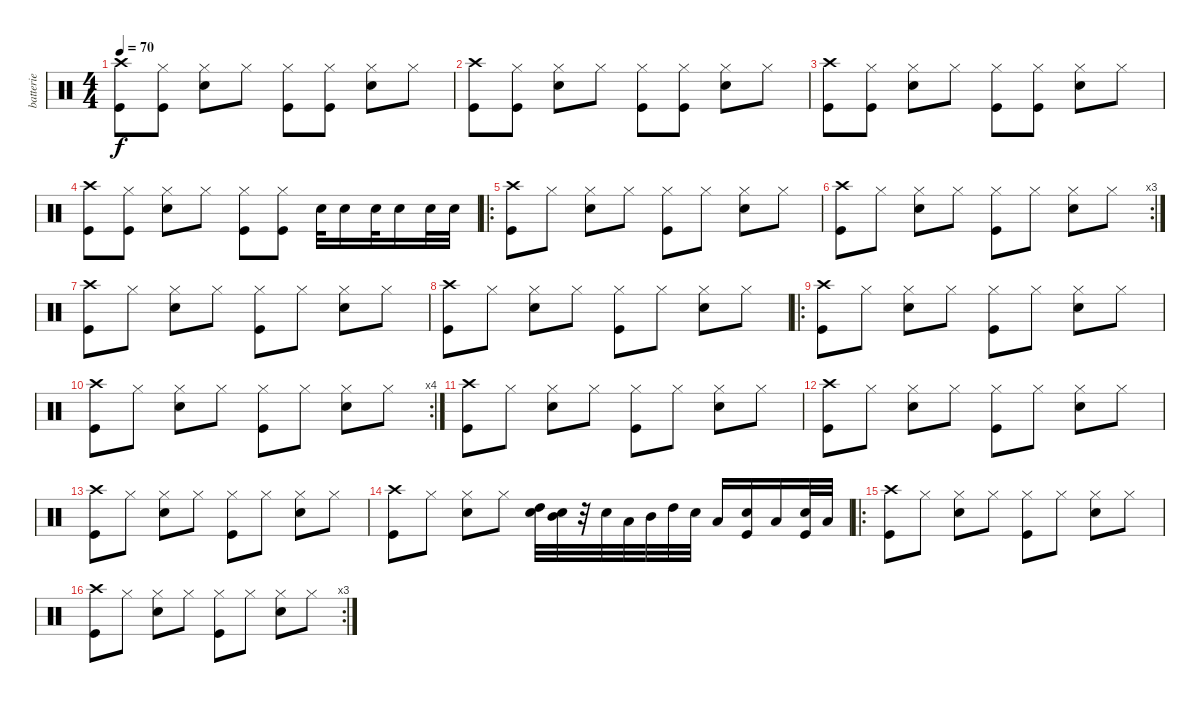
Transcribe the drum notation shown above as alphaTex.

\track ("batterie" "batterie") {instrument percussion}
\staff {score}
\articulation defaults
\ts (4 4)
\tempo 70
\clef neutral
\ks c
("Crash high (hit)" "Kick (hit)").8{dy f} ("Hi-Hat (closed)" "Kick (hit)").8 ("Hi-Hat (closed)" "Snare (hit) 2").8 "Hi-Hat (closed)".8 ("Hi-Hat (closed)" "Kick (hit)").8 ("Hi-Hat (closed)" "Kick (hit)").8 ("Hi-Hat (closed)" "Snare (hit) 2").8 "Hi-Hat (closed)".8 |
("Crash high (hit)" "Kick (hit)").8 ("Hi-Hat (closed)" "Kick (hit)").8 ("Hi-Hat (closed)" "Snare (hit) 2").8 "Hi-Hat (closed)".8 ("Hi-Hat (closed)" "Kick (hit)").8 ("Hi-Hat (closed)" "Kick (hit)").8 ("Hi-Hat (closed)" "Snare (hit) 2").8 "Hi-Hat (closed)".8 |
("Crash high (hit)" "Kick (hit)").8 ("Hi-Hat (closed)" "Kick (hit)").8 ("Hi-Hat (closed)" "Snare (hit) 2").8 "Hi-Hat (closed)".8 ("Hi-Hat (closed)" "Kick (hit)").8 ("Hi-Hat (closed)" "Kick (hit)").8 ("Hi-Hat (closed)" "Snare (hit) 2").8 "Hi-Hat (closed)".8 |
("Crash high (hit)" "Kick (hit)").8 ("Hi-Hat (closed)" "Kick (hit)").8 ("Hi-Hat (closed)" "Snare (hit) 2").8 "Hi-Hat (closed)".8 ("Hi-Hat (closed)" "Kick (hit)").8 ("Hi-Hat (closed)" "Kick (hit)").8 "Snare (hit) 2".32 "Snare (hit) 2".16 "Snare (hit) 2".32 "Snare (hit) 2".16 "Snare (hit) 2".32 "Snare (hit) 2".32 |
\ro
("Crash high (hit)" "Kick (hit)").8 "Hi-Hat (closed)".8 ("Hi-Hat (closed)" "Snare (hit) 2").8 "Hi-Hat (closed)".8 ("Hi-Hat (closed)" "Kick (hit)").8 "Hi-Hat (closed)".8 ("Hi-Hat (closed)" "Snare (hit) 2").8 "Hi-Hat (closed)".8 |
\rc 3
("Crash high (hit)" "Kick (hit)").8 "Hi-Hat (closed)".8 ("Hi-Hat (closed)" "Snare (hit) 2").8 "Hi-Hat (closed)".8 ("Hi-Hat (closed)" "Kick (hit)").8 "Hi-Hat (closed)".8 ("Hi-Hat (closed)" "Snare (hit) 2").8 "Hi-Hat (closed)".8 |
("Crash high (hit)" "Kick (hit)").8 "Hi-Hat (closed)".8 ("Hi-Hat (closed)" "Snare (hit) 2").8 "Hi-Hat (closed)".8 ("Hi-Hat (closed)" "Kick (hit)").8 "Hi-Hat (closed)".8 ("Hi-Hat (closed)" "Snare (hit) 2").8 "Hi-Hat (closed)".8 |
("Crash high (hit)" "Kick (hit)").8 "Hi-Hat (closed)".8 ("Hi-Hat (closed)" "Snare (hit) 2").8 "Hi-Hat (closed)".8 ("Hi-Hat (closed)" "Kick (hit)").8 "Hi-Hat (closed)".8 ("Hi-Hat (closed)" "Snare (hit) 2").8 "Hi-Hat (closed)".8 |
\ro
("Crash high (hit)" "Kick (hit)").8 "Hi-Hat (closed)".8 ("Hi-Hat (closed)" "Snare (hit) 2").8 "Hi-Hat (closed)".8 ("Hi-Hat (closed)" "Kick (hit)").8 "Hi-Hat (closed)".8 ("Hi-Hat (closed)" "Snare (hit) 2").8 "Hi-Hat (closed)".8 |
\rc 4
("Crash high (hit)" "Kick (hit)").8 "Hi-Hat (closed)".8 ("Hi-Hat (closed)" "Snare (hit) 2").8 "Hi-Hat (closed)".8 ("Hi-Hat (closed)" "Kick (hit)").8 "Hi-Hat (closed)".8 ("Hi-Hat (closed)" "Snare (hit) 2").8 "Hi-Hat (closed)".8 |
("Crash high (hit)" "Kick (hit)").8 "Hi-Hat (closed)".8 ("Hi-Hat (closed)" "Snare (hit) 2").8 "Hi-Hat (closed)".8 ("Hi-Hat (closed)" "Kick (hit)").8 "Hi-Hat (closed)".8 ("Hi-Hat (closed)" "Snare (hit) 2").8 "Hi-Hat (closed)".8 |
("Crash high (hit)" "Kick (hit)").8 "Hi-Hat (closed)".8 ("Hi-Hat (closed)" "Snare (hit) 2").8 "Hi-Hat (closed)".8 ("Hi-Hat (closed)" "Kick (hit)").8 "Hi-Hat (closed)".8 ("Hi-Hat (closed)" "Snare (hit) 2").8 "Hi-Hat (closed)".8 |
("Crash high (hit)" "Kick (hit)").8 "Hi-Hat (closed)".8 ("Hi-Hat (closed)" "Snare (hit) 2").8 "Hi-Hat (closed)".8 ("Hi-Hat (closed)" "Kick (hit)").8 "Hi-Hat (closed)".8 ("Hi-Hat (closed)" "Snare (hit) 2").8 "Hi-Hat (closed)".8 |
("Crash high (hit)" "Kick (hit)").8 "Hi-Hat (closed)".8 ("Hi-Hat (closed)" "Snare (hit) 2").8 "Hi-Hat (closed)".8 ("High Tom (hit)" "Snare (hit) 2").32 ("Mid Tom (hit)" "Snare (hit) 2").32 r.32 "Snare (hit) 2".32 "Low Floor Tom (hit)".32 "Mid Tom (hit)".32 "High Tom (hit)".32 "Snare (hit) 2".32 "Low Floor Tom (hit)".16 ("Snare (hit) 2" "Kick (hit)").16 "Low Floor Tom (hit)".16 ("Snare (hit) 2" "Kick (hit)").32 "Low Floor Tom (hit)".32 |
\ro
("Crash high (hit)" "Kick (hit)").8 "Hi-Hat (closed)".8 ("Hi-Hat (closed)" "Snare (hit) 2").8 "Hi-Hat (closed)".8 ("Hi-Hat (closed)" "Kick (hit)").8 "Hi-Hat (closed)".8 ("Hi-Hat (closed)" "Snare (hit) 2").8 "Hi-Hat (closed)".8 |
\rc 3
("Crash high (hit)" "Kick (hit)").8 "Hi-Hat (closed)".8 ("Hi-Hat (closed)" "Snare (hit) 2").8 "Hi-Hat (closed)".8 ("Hi-Hat (closed)" "Kick (hit)").8 "Hi-Hat (closed)".8 ("Hi-Hat (closed)" "Snare (hit) 2").8 "Hi-Hat (closed)".8
